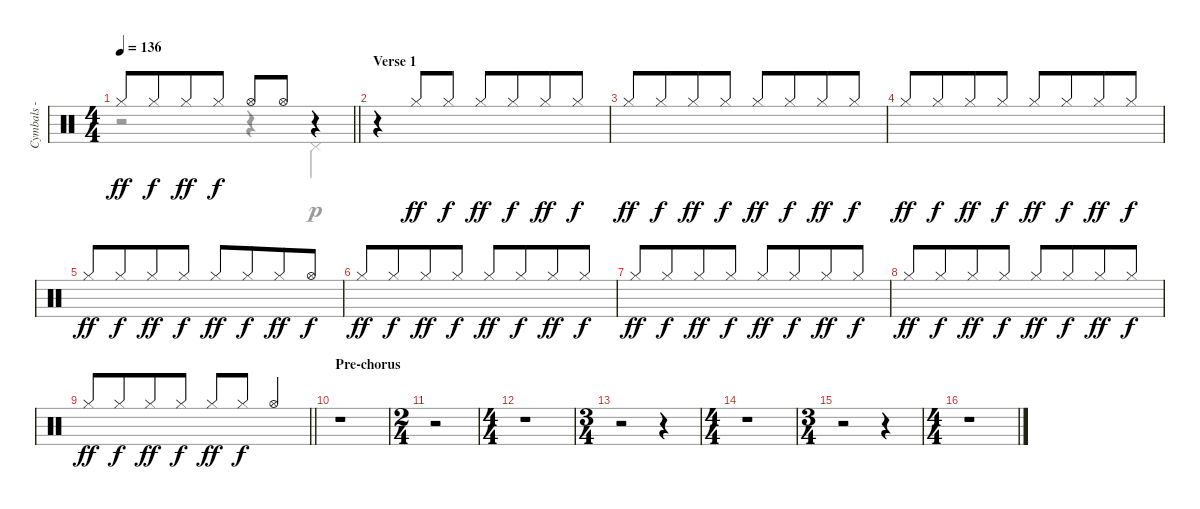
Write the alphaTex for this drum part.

\track ("Cymbals - hi-hat" "Cymbals - ") {instrument percussion}
\staff {score}
\articulation defaults
\voice
\ts (4 4)
\tempo 136
\clef neutral
\barLineRight lightlight
\ks c "Hi-Hat (closed)".8{dy ff} "Hi-Hat (closed)".8{dy f beam merge} "Hi-Hat (closed)".8{dy ff} "Hi-Hat (closed)".8{dy f} "Hi-Hat (open)".8 "Hi-Hat (open)".8{beam merge}
r.4 |
\section ("" "Verse 1")
r.4{volume 3} "Hi-Hat (closed)".8{dy ff beam Up} "Hi-Hat (closed)".8{dy f beam Up} "Hi-Hat (closed)".8{dy ff beam Up} "Hi-Hat (closed)".8{dy f beam Up beam merge} "Hi-Hat (closed)".8{dy ff beam Up} "Hi-Hat (closed)".8{dy f beam Up} |
"Hi-Hat (closed)".8{dy ff beam Up} "Hi-Hat (closed)".8{dy f beam Up beam merge} "Hi-Hat (closed)".8{dy ff beam Up} "Hi-Hat (closed)".8{dy f beam Up} "Hi-Hat (closed)".8{dy ff beam Up} "Hi-Hat (closed)".8{dy f beam Up beam merge} "Hi-Hat (closed)".8{dy ff beam Up} "Hi-Hat (closed)".8{dy f beam Up} |
"Hi-Hat (closed)".8{dy ff beam Up} "Hi-Hat (closed)".8{dy f beam Up beam merge} "Hi-Hat (closed)".8{dy ff beam Up} "Hi-Hat (closed)".8{dy f beam Up} "Hi-Hat (closed)".8{dy ff beam Up} "Hi-Hat (closed)".8{dy f beam Up beam merge} "Hi-Hat (closed)".8{dy ff beam Up} "Hi-Hat (closed)".8{dy f beam Up} |
"Hi-Hat (closed)".8{dy ff beam Up} "Hi-Hat (closed)".8{dy f beam Up beam merge} "Hi-Hat (closed)".8{dy ff beam Up} "Hi-Hat (closed)".8{dy f beam Up} "Hi-Hat (closed)".8{dy ff beam Up} "Hi-Hat (closed)".8{dy f beam Up beam merge} "Hi-Hat (closed)".8{dy ff beam Up} "Hi-Hat (open)".8{dy f beam Up} |
"Hi-Hat (closed)".8{dy ff beam Up} "Hi-Hat (closed)".8{dy f beam Up beam merge} "Hi-Hat (closed)".8{dy ff beam Up} "Hi-Hat (closed)".8{dy f beam Up} "Hi-Hat (closed)".8{dy ff beam Up} "Hi-Hat (closed)".8{dy f beam Up beam merge} "Hi-Hat (closed)".8{dy ff beam Up} "Hi-Hat (closed)".8{dy f beam Up} |
"Hi-Hat (closed)".8{dy ff beam Up} "Hi-Hat (closed)".8{dy f beam Up beam merge} "Hi-Hat (closed)".8{dy ff beam Up} "Hi-Hat (closed)".8{dy f beam Up} "Hi-Hat (closed)".8{dy ff beam Up} "Hi-Hat (closed)".8{dy f beam Up beam merge} "Hi-Hat (closed)".8{dy ff beam Up} "Hi-Hat (closed)".8{dy f beam Up} |
"Hi-Hat (closed)".8{dy ff beam Up} "Hi-Hat (closed)".8{dy f beam Up beam merge} "Hi-Hat (closed)".8{dy ff beam Up} "Hi-Hat (closed)".8{dy f beam Up} "Hi-Hat (closed)".8{dy ff beam Up} "Hi-Hat (closed)".8{dy f beam Up beam merge} "Hi-Hat (closed)".8{dy ff beam Up} "Hi-Hat (closed)".8{dy f beam Up} |
\barLineRight lightlight "Hi-Hat (closed)".8{dy ff beam Up} "Hi-Hat (closed)".8{dy f beam Up beam merge} "Hi-Hat (closed)".8{dy ff beam Up} "Hi-Hat (closed)".8{dy f beam Up} "Hi-Hat (closed)".8{dy ff beam Up} "Hi-Hat (closed)".8{dy f beam Up} "Hi-Hat (open)".4{beam Up}
|
\section ("" "Pre-chorus")
r.1 |
\ts (2 4)
r.2 |
\ts (4 4)
r.1 |
\ts (3 4)
r.2 r.4 |
\ts (4 4)
r.1 |
\ts (3 4)
r.2 r.4 |
\ts (4 4)
r.1
\voice
\clef neutral
\ottava regular
\simile none
\barLineRight lightlight
\ks c
r.2{dy pp} r.4 "Pedal Hi-Hat (hit)".4{dy p} |
|
|
|
|
|
|
|
\barLineRight lightlight
|
|
|
|
|
|
|
